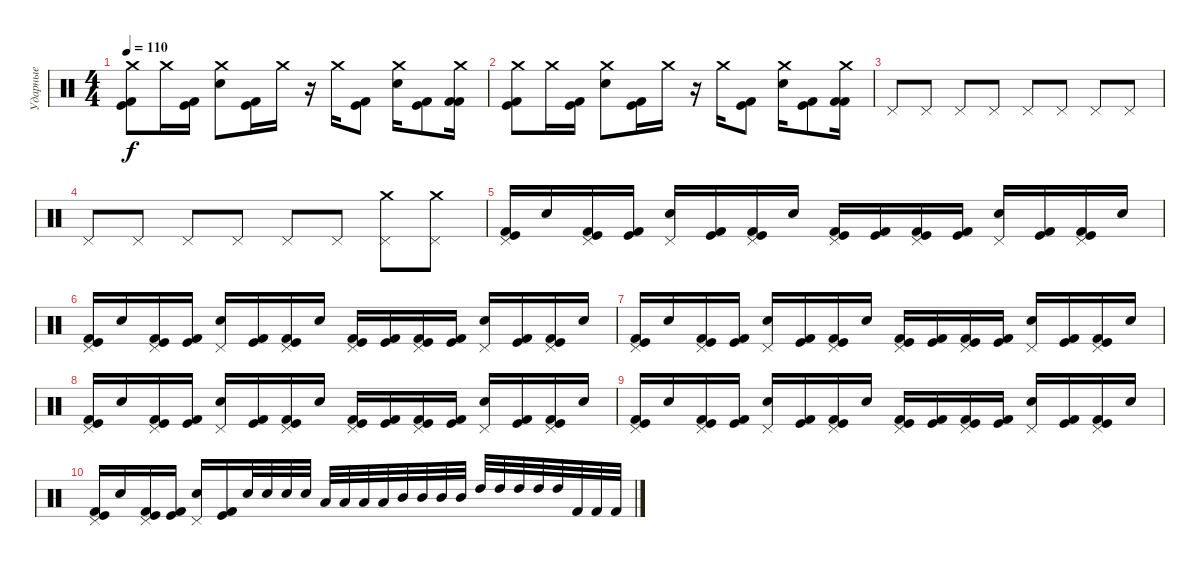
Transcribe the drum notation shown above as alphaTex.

\track ("Ударные" "Ударные") {instrument percussion}
\staff {score}
\articulation defaults
\ts (4 4)
\tempo 110
\clef neutral
\ks c
("Crash medium (hit)" "Kick (hit) 2" "Kick (hit)").8{dy f} "Crash medium (hit)".16 ("Kick (hit) 2" "Kick (hit)").16 ("Crash medium (hit)" "Electric Snare (hit)").8 ("Kick (hit) 2" "Kick (hit)").16 "Crash medium (hit)".16 r.16 "Crash medium (hit)".16 ("Kick (hit) 2" "Kick (hit)").8 ("Crash medium (hit)" "Electric Snare (hit)").16 ("Kick (hit) 2" "Kick (hit)").8 ("Crash medium (hit)" "Kick (hit) 2" "Kick (hit) 2").16 |
("Crash medium (hit)" "Kick (hit) 2" "Kick (hit)").8 "Crash medium (hit)".16 ("Kick (hit) 2" "Kick (hit)").16 ("Crash medium (hit)" "Electric Snare (hit)").8 ("Kick (hit) 2" "Kick (hit)").16 "Crash medium (hit)".16 r.16 "Crash medium (hit)".16 ("Kick (hit) 2" "Kick (hit)").8 ("Crash medium (hit)" "Electric Snare (hit)").16 ("Kick (hit) 2" "Kick (hit)").8 ("Crash medium (hit)" "Kick (hit) 2" "Kick (hit) 2").16 |
"Pedal Hi-Hat (hit)".8 "Pedal Hi-Hat (hit)".8 "Pedal Hi-Hat (hit)".8 "Pedal Hi-Hat (hit)".8 "Pedal Hi-Hat (hit)".8 "Pedal Hi-Hat (hit)".8 "Pedal Hi-Hat (hit)".8 "Pedal Hi-Hat (hit)".8 |
"Pedal Hi-Hat (hit)".8 "Pedal Hi-Hat (hit)".8 "Pedal Hi-Hat (hit)".8 "Pedal Hi-Hat (hit)".8 "Pedal Hi-Hat (hit)".8 "Pedal Hi-Hat (hit)".8 ("Crash medium (hit)" "Pedal Hi-Hat (hit)").8 ("Crash medium (hit)" "Pedal Hi-Hat (hit)").8 |
("Pedal Hi-Hat (hit)" "Kick (hit) 2" "Kick (hit)").16 "Electric Snare (hit)".16 ("Pedal Hi-Hat (hit)" "Kick (hit) 2" "Kick (hit)").16 ("Kick (hit) 2" "Kick (hit)").16 ("Pedal Hi-Hat (hit)" "Electric Snare (hit)").16 ("Kick (hit) 2" "Kick (hit)").16 ("Pedal Hi-Hat (hit)" "Kick (hit) 2" "Kick (hit)").16 "Electric Snare (hit)".16 ("Pedal Hi-Hat (hit)" "Kick (hit) 2" "Kick (hit)").16 ("Kick (hit) 2" "Kick (hit)").16 ("Pedal Hi-Hat (hit)" "Kick (hit) 2" "Kick (hit)").16 ("Kick (hit) 2" "Kick (hit)").16 ("Pedal Hi-Hat (hit)" "Electric Snare (hit)").16 ("Kick (hit) 2" "Kick (hit)").16 ("Pedal Hi-Hat (hit)" "Kick (hit) 2" "Kick (hit)").16 "Electric Snare (hit)".16 |
("Pedal Hi-Hat (hit)" "Kick (hit) 2" "Kick (hit)").16 "Electric Snare (hit)".16 ("Pedal Hi-Hat (hit)" "Kick (hit) 2" "Kick (hit)").16 ("Kick (hit) 2" "Kick (hit)").16 ("Pedal Hi-Hat (hit)" "Electric Snare (hit)").16 ("Kick (hit) 2" "Kick (hit)").16 ("Pedal Hi-Hat (hit)" "Kick (hit) 2" "Kick (hit)").16 "Electric Snare (hit)".16 ("Pedal Hi-Hat (hit)" "Kick (hit) 2" "Kick (hit)").16 ("Kick (hit) 2" "Kick (hit)").16 ("Pedal Hi-Hat (hit)" "Kick (hit) 2" "Kick (hit)").16 ("Kick (hit) 2" "Kick (hit)").16 ("Pedal Hi-Hat (hit)" "Electric Snare (hit)").16 ("Kick (hit) 2" "Kick (hit)").16 ("Pedal Hi-Hat (hit)" "Kick (hit) 2" "Kick (hit)").16 "Electric Snare (hit)".16 |
("Pedal Hi-Hat (hit)" "Kick (hit) 2" "Kick (hit)").16 "Electric Snare (hit)".16 ("Pedal Hi-Hat (hit)" "Kick (hit) 2" "Kick (hit)").16 ("Kick (hit) 2" "Kick (hit)").16 ("Pedal Hi-Hat (hit)" "Electric Snare (hit)").16 ("Kick (hit) 2" "Kick (hit)").16 ("Pedal Hi-Hat (hit)" "Kick (hit) 2" "Kick (hit)").16 "Electric Snare (hit)".16 ("Pedal Hi-Hat (hit)" "Kick (hit) 2" "Kick (hit)").16 ("Kick (hit) 2" "Kick (hit)").16 ("Pedal Hi-Hat (hit)" "Kick (hit) 2" "Kick (hit)").16 ("Kick (hit) 2" "Kick (hit)").16 ("Pedal Hi-Hat (hit)" "Electric Snare (hit)").16 ("Kick (hit) 2" "Kick (hit)").16 ("Pedal Hi-Hat (hit)" "Kick (hit) 2" "Kick (hit)").16 "Electric Snare (hit)".16 |
("Pedal Hi-Hat (hit)" "Kick (hit) 2" "Kick (hit)").16 "Electric Snare (hit)".16 ("Pedal Hi-Hat (hit)" "Kick (hit) 2" "Kick (hit)").16 ("Kick (hit) 2" "Kick (hit)").16 ("Pedal Hi-Hat (hit)" "Electric Snare (hit)").16 ("Kick (hit) 2" "Kick (hit)").16 ("Pedal Hi-Hat (hit)" "Kick (hit) 2" "Kick (hit)").16 "Electric Snare (hit)".16 ("Pedal Hi-Hat (hit)" "Kick (hit) 2" "Kick (hit)").16 ("Kick (hit) 2" "Kick (hit)").16 ("Pedal Hi-Hat (hit)" "Kick (hit) 2" "Kick (hit)").16 ("Kick (hit) 2" "Kick (hit)").16 ("Pedal Hi-Hat (hit)" "Electric Snare (hit)").16 ("Kick (hit) 2" "Kick (hit)").16 ("Pedal Hi-Hat (hit)" "Kick (hit) 2" "Kick (hit)").16 "Electric Snare (hit)".16 |
("Pedal Hi-Hat (hit)" "Kick (hit) 2" "Kick (hit)").16 "Electric Snare (hit)".16 ("Pedal Hi-Hat (hit)" "Kick (hit) 2" "Kick (hit)").16 ("Kick (hit) 2" "Kick (hit)").16 ("Pedal Hi-Hat (hit)" "Electric Snare (hit)").16 ("Kick (hit) 2" "Kick (hit)").16 ("Pedal Hi-Hat (hit)" "Kick (hit) 2" "Kick (hit)").16 "Electric Snare (hit)".16 ("Pedal Hi-Hat (hit)" "Kick (hit) 2" "Kick (hit)").16 ("Kick (hit) 2" "Kick (hit)").16 ("Pedal Hi-Hat (hit)" "Kick (hit) 2" "Kick (hit)").16 ("Kick (hit) 2" "Kick (hit)").16 ("Pedal Hi-Hat (hit)" "Electric Snare (hit)").16 ("Kick (hit) 2" "Kick (hit)").16 ("Pedal Hi-Hat (hit)" "Kick (hit) 2" "Kick (hit)").16 "Electric Snare (hit)".16 |
("Pedal Hi-Hat (hit)" "Kick (hit) 2" "Kick (hit)").16 "Electric Snare (hit)".16 ("Pedal Hi-Hat (hit)" "Kick (hit) 2" "Kick (hit)").16 ("Kick (hit) 2" "Kick (hit)").16 ("Pedal Hi-Hat (hit)" "Electric Snare (hit)").16 ("Kick (hit) 2" "Kick (hit)").16 "Electric Snare (hit)".32 "Electric Snare (hit)".32 "Electric Snare (hit)".32 "Electric Snare (hit)".32 "Low Tom (hit)".32 "Low Tom (hit)".32 "Low Tom (hit)".32 "Low Tom (hit)".32 "Mid Tom (hit)".32 "Mid Tom (hit)".32 "Mid Tom (hit)".32 "Mid Tom (hit)".32 "High Tom (hit)".32 "High Tom (hit)".32 "High Tom (hit)".32 "High Tom (hit)".32 "High Tom (hit)".32 "Kick (hit) 2".32 "Kick (hit) 2".32 "Kick (hit) 2".32
